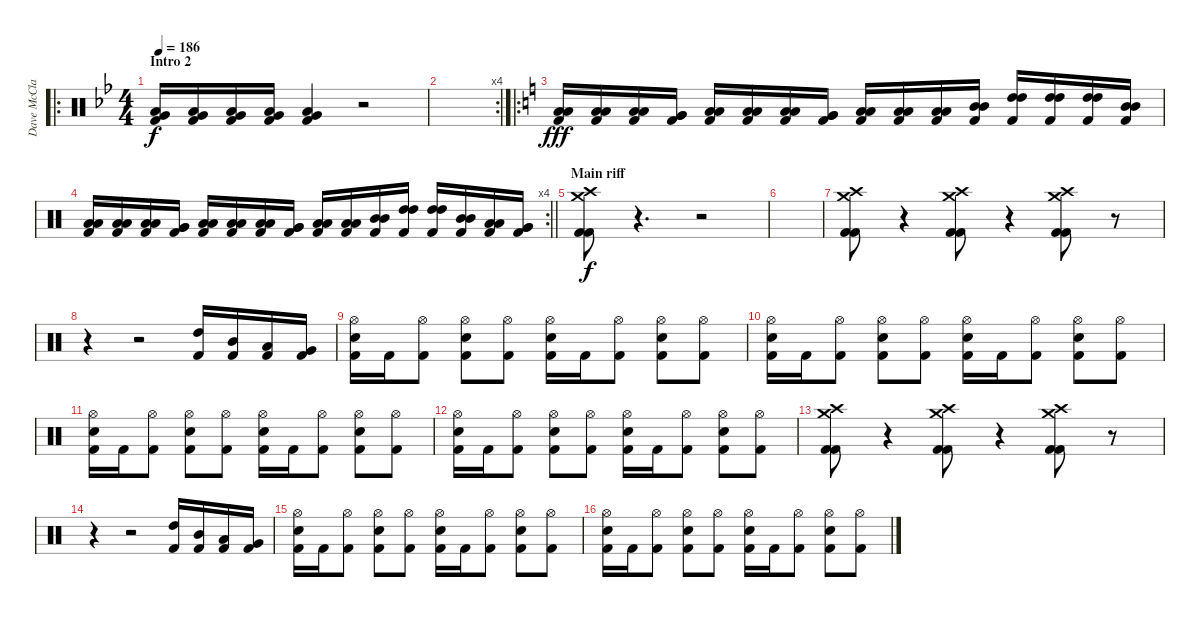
\track ("Dave McClain" "Dave McCla") {instrument percussion}
\staff {score}
\articulation defaults
\ro
\ts (4 4)
\section ("" "Intro 2")
\tempo 186
\clef neutral
\ks bb
("Very Low Tom (hit)" "Low Floor Tom (hit)" "Kick (hit) 2").16{dy f} ("Very Low Tom (hit)" "Low Floor Tom (hit)" "Kick (hit) 2").16 ("Very Low Tom (hit)" "Low Floor Tom (hit)" "Kick (hit) 2").16 ("Very Low Tom (hit)" "Low Floor Tom (hit)" "Kick (hit) 2").16 ("Very Low Tom (hit)" "Low Floor Tom (hit)" "Kick (hit) 2").4 r.2 |
\rc 4
|
\ro
\ks c
("Low Tom (hit)" "Low Tom (hit)" "Kick (hit) 2").16{dy fff} ("Low Tom (hit)" "Low Tom (hit)" "Kick (hit) 2").16 ("Low Tom (hit)" "Low Tom (hit)" "Kick (hit) 2").16 ("Very Low Tom (hit)" "Very Low Tom (hit)" "Kick (hit) 2").16 ("Low Floor Tom (hit)" "Low Floor Tom (hit)" "Kick (hit) 2").16 ("Low Floor Tom (hit)" "Low Floor Tom (hit)" "Kick (hit) 2").16 ("Low Floor Tom (hit)" "Low Floor Tom (hit)" "Kick (hit) 2").16 ("Very Low Tom (hit)" "Very Low Tom (hit)" "Kick (hit) 2").16 ("Low Tom (hit)" "Low Tom (hit)" "Kick (hit) 2").16 ("Low Tom (hit)" "Low Tom (hit)" "Kick (hit) 2").16 ("Low Tom (hit)" "Low Tom (hit)" "Kick (hit) 2").16 ("Mid Tom (hit)" "Mid Tom (hit)" "Kick (hit) 2").16 ("High Tom (hit)" "High Tom (hit)" "Kick (hit) 2").16 ("High Tom (hit)" "High Tom (hit)" "Kick (hit) 2").16 ("High Tom (hit)" "High Tom (hit)" "Kick (hit) 2").16 ("Mid Tom (hit)" "Mid Tom (hit)" "Kick (hit) 2").16 |
\rc 4
\barLineRight lightlight
("Low Tom (hit)" "Low Tom (hit)" "Kick (hit) 2").16 ("Low Tom (hit)" "Low Tom (hit)" "Kick (hit) 2").16 ("Low Tom (hit)" "Low Tom (hit)" "Kick (hit) 2").16 ("Very Low Tom (hit)" "Very Low Tom (hit)" "Kick (hit) 2").16 ("Low Floor Tom (hit)" "Low Floor Tom (hit)" "Kick (hit) 2").16 ("Low Floor Tom (hit)" "Low Floor Tom (hit)" "Kick (hit) 2").16 ("Low Floor Tom (hit)" "Low Floor Tom (hit)" "Kick (hit) 2").16 ("Very Low Tom (hit)" "Very Low Tom (hit)" "Kick (hit) 2").16 ("Low Tom (hit)" "Low Tom (hit)" "Kick (hit) 2").16 ("Low Tom (hit)" "Low Tom (hit)" "Kick (hit) 2").16 ("Mid Tom (hit)" "Mid Tom (hit)" "Kick (hit) 2").16 ("High Tom (hit)" "High Tom (hit)" "Kick (hit) 2").16 ("High Tom (hit)" "High Tom (hit)" "Kick (hit) 2").16 ("Mid Tom (hit)" "Mid Tom (hit)" "Kick (hit) 2").16 ("Low Tom (hit)" "Low Tom (hit)" "Kick (hit) 2").16 ("Very Low Tom (hit)" "Very Low Tom (hit)" "Kick (hit) 2").16 |
\section ("" "Main riff")
("Crash medium (hit)" "Crash high (hit)" "Kick (hit) 2" "Kick (hit) 2").8{dy f} r.4{d} r.2 |
|
("Crash medium (hit)" "Crash high (hit)" "Kick (hit) 2" "Kick (hit) 2").8 r.4 ("Crash medium (hit)" "Crash high (hit)" "Kick (hit) 2" "Kick (hit) 2").8 r.4 ("Crash medium (hit)" "Crash high (hit)" "Kick (hit) 2" "Kick (hit) 2").8 r.8 |
r.4 r.2 ("High Tom (hit)" "Kick (hit) 2").16 ("Mid Tom (hit)" "Kick (hit) 2").16 ("Low Tom (hit)" "Kick (hit) 2").16 ("Very Low Tom (hit)" "Kick (hit) 2").16 |
("Hi-Hat (open)" "Snare (hit) 2" "Kick (hit) 2").16 "Kick (hit) 2".16 ("Hi-Hat (open)" "Kick (hit) 2").8 ("Hi-Hat (open)" "Snare (hit) 2" "Kick (hit) 2").8 ("Hi-Hat (open)" "Kick (hit) 2").8 ("Hi-Hat (open)" "Snare (hit) 2" "Kick (hit) 2").16 "Kick (hit) 2".16 ("Hi-Hat (open)" "Kick (hit) 2").8 ("Hi-Hat (open)" "Snare (hit) 2" "Kick (hit) 2").8 ("Hi-Hat (open)" "Kick (hit) 2").8 |
("Hi-Hat (open)" "Snare (hit) 2" "Kick (hit) 2").16 "Kick (hit) 2".16 ("Hi-Hat (open)" "Kick (hit) 2").8 ("Hi-Hat (open)" "Snare (hit) 2" "Kick (hit) 2").8 ("Hi-Hat (open)" "Kick (hit) 2").8 ("Hi-Hat (open)" "Snare (hit) 2" "Kick (hit) 2").16 "Kick (hit) 2".16 ("Hi-Hat (open)" "Kick (hit) 2").8 ("Hi-Hat (open)" "Snare (hit) 2" "Kick (hit) 2").8 ("Hi-Hat (open)" "Kick (hit) 2").8 |
("Hi-Hat (open)" "Snare (hit) 2" "Kick (hit) 2").16 "Kick (hit) 2".16 ("Hi-Hat (open)" "Kick (hit) 2").8 ("Hi-Hat (open)" "Snare (hit) 2" "Kick (hit) 2").8 ("Hi-Hat (open)" "Kick (hit) 2").8 ("Hi-Hat (open)" "Snare (hit) 2" "Kick (hit) 2").16 "Kick (hit) 2".16 ("Hi-Hat (open)" "Kick (hit) 2").8 ("Hi-Hat (open)" "Snare (hit) 2" "Kick (hit) 2").8 ("Hi-Hat (open)" "Kick (hit) 2").8 |
("Hi-Hat (open)" "Snare (hit) 2" "Kick (hit) 2").16 "Kick (hit) 2".16 ("Hi-Hat (open)" "Kick (hit) 2").8 ("Hi-Hat (open)" "Snare (hit) 2" "Kick (hit) 2").8 ("Hi-Hat (open)" "Kick (hit) 2").8 ("Hi-Hat (open)" "Snare (hit) 2" "Kick (hit) 2").16 "Kick (hit) 2".16 ("Hi-Hat (open)" "Kick (hit) 2").8 ("Hi-Hat (open)" "Snare (hit) 2" "Kick (hit) 2").8 ("Hi-Hat (open)" "Kick (hit) 2").8 |
("Crash medium (hit)" "Crash high (hit)" "Kick (hit) 2" "Kick (hit) 2").8 r.4 ("Crash medium (hit)" "Crash high (hit)" "Kick (hit) 2" "Kick (hit) 2").8 r.4 ("Crash medium (hit)" "Crash high (hit)" "Kick (hit) 2" "Kick (hit) 2").8 r.8 |
r.4 r.2 ("High Tom (hit)" "Kick (hit) 2").16 ("Mid Tom (hit)" "Kick (hit) 2").16 ("Low Tom (hit)" "Kick (hit) 2").16 ("Very Low Tom (hit)" "Kick (hit) 2").16 |
("Hi-Hat (open)" "Snare (hit) 2" "Kick (hit) 2").16 "Kick (hit) 2".16 ("Hi-Hat (open)" "Kick (hit) 2").8 ("Hi-Hat (open)" "Snare (hit) 2" "Kick (hit) 2").8 ("Hi-Hat (open)" "Kick (hit) 2").8 ("Hi-Hat (open)" "Snare (hit) 2" "Kick (hit) 2").16 "Kick (hit) 2".16 ("Hi-Hat (open)" "Kick (hit) 2").8 ("Hi-Hat (open)" "Snare (hit) 2" "Kick (hit) 2").8 ("Hi-Hat (open)" "Kick (hit) 2").8 |
("Hi-Hat (open)" "Snare (hit) 2" "Kick (hit) 2").16 "Kick (hit) 2".16 ("Hi-Hat (open)" "Kick (hit) 2").8 ("Hi-Hat (open)" "Snare (hit) 2" "Kick (hit) 2").8 ("Hi-Hat (open)" "Kick (hit) 2").8 ("Hi-Hat (open)" "Snare (hit) 2" "Kick (hit) 2").16 "Kick (hit) 2".16 ("Hi-Hat (open)" "Kick (hit) 2").8 ("Hi-Hat (open)" "Snare (hit) 2" "Kick (hit) 2").8 ("Hi-Hat (open)" "Kick (hit) 2").8
